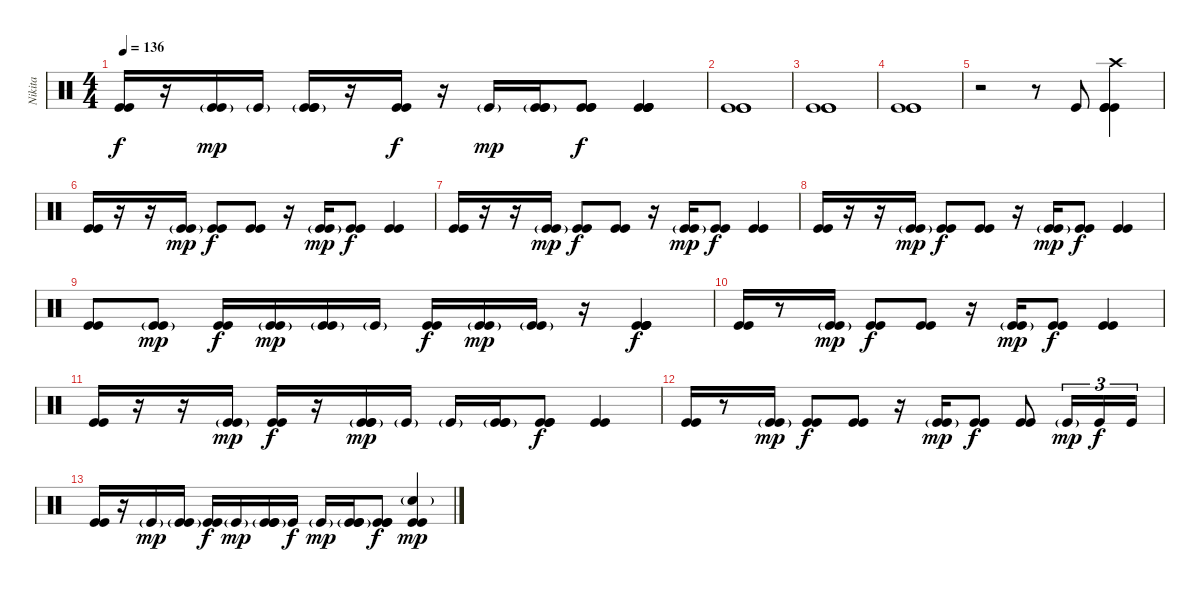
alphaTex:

\track ("Nikita" "Nikita") {instrument percussion}
\staff {score}
\articulation defaults
\ts (4 4)
\tempo 136
\clef neutral
\ks c
("Kick (hit)" "Kick (hit)").16{dy f} r.16 ("Kick (hit)"{g} "Kick (hit)"{g}).16{dy mp} "Kick (hit)"{g}.16 ("Kick (hit)" "Kick (hit)" "Kick (hit)"{g}).16 r.16 ("Kick (hit)" "Kick (hit)").16{dy f} r.16 "Kick (hit)"{g}.16{dy mp} ("Kick (hit)"{g} "Kick (hit)"{g} "Kick (hit)"{g}).16 ("Kick (hit)" "Kick (hit)" "Kick (hit)").8{dy f} ("Kick (hit)" "Kick (hit)" "Kick (hit)" "Kick (hit)").4 |
("Kick (hit)" "Kick (hit)" "Kick (hit)").1 |
("Kick (hit)" "Kick (hit)" "Kick (hit)").1 |
("Kick (hit)" "Kick (hit)" "Kick (hit)").1 |
r.2 r.8 "Kick (hit)".8 ("Kick (hit)" "Kick (hit)" "Kick (hit)" "Crash high (hit)").4 |
("Kick (hit)" "Kick (hit)").16 r.16 r.16 ("Kick (hit)"{g} "Kick (hit)"{g}).16{dy mp} ("Kick (hit)" "Kick (hit)").8{dy f} ("Kick (hit)" "Kick (hit)").8 r.16 ("Kick (hit)"{g} "Kick (hit)"{g}).16{dy mp} ("Kick (hit)" "Kick (hit)").8{dy f} ("Kick (hit)" "Kick (hit)").4 |
("Kick (hit)" "Kick (hit)").16 r.16 r.16 ("Kick (hit)"{g} "Kick (hit)"{g}).16{dy mp} ("Kick (hit)" "Kick (hit)").8{dy f} ("Kick (hit)" "Kick (hit)").8 r.16 ("Kick (hit)"{g} "Kick (hit)"{g}).16{dy mp} ("Kick (hit)" "Kick (hit)").8{dy f} ("Kick (hit)" "Kick (hit)").4 |
("Kick (hit)" "Kick (hit)").16 r.16 r.16 ("Kick (hit)"{g} "Kick (hit)"{g}).16{dy mp} ("Kick (hit)" "Kick (hit)").8{dy f} ("Kick (hit)" "Kick (hit)").8 r.16 ("Kick (hit)"{g} "Kick (hit)"{g}).16{dy mp} ("Kick (hit)" "Kick (hit)").8{dy f} ("Kick (hit)" "Kick (hit)").4 |
("Kick (hit)" "Kick (hit)").8 ("Kick (hit)"{g} "Kick (hit)"{g}).8{dy mp} ("Kick (hit)" "Kick (hit)").16{dy f} ("Kick (hit)"{g} "Kick (hit)"{g}).16{dy mp} ("Kick (hit)"{g} "Kick (hit)"{g}).16 "Kick (hit)"{g}.16 ("Kick (hit)" "Kick (hit)").16{dy f} ("Kick (hit)"{g} "Kick (hit)"{g}).16{dy mp} ("Kick (hit)"{g} "Kick (hit)"{g}).16 r.16 ("Kick (hit)" "Kick (hit)" "Kick (hit)" "Kick (hit)").4{dy f} |
("Kick (hit)" "Kick (hit)").16 r.8 ("Kick (hit)"{g} "Kick (hit)"{g}).16{dy mp} ("Kick (hit)" "Kick (hit)").8{dy f} ("Kick (hit)" "Kick (hit)").8 r.16 ("Kick (hit)"{g} "Kick (hit)"{g}).16{dy mp} ("Kick (hit)" "Kick (hit)").8{dy f} ("Kick (hit)" "Kick (hit)").4 |
("Kick (hit)" "Kick (hit)").16 r.16 r.16 ("Kick (hit)"{g} "Kick (hit)"{g}).16{dy mp} ("Kick (hit)" "Kick (hit)").16{dy f} r.16 ("Kick (hit)" "Kick (hit)" "Kick (hit)"{g}).16{dy mp} "Kick (hit)"{g}.16 "Kick (hit)"{g}.16 ("Kick (hit)"{g} "Kick (hit)"{g} "Kick (hit)"{g}).16 ("Kick (hit)" "Kick (hit)" "Kick (hit)").8{dy f} ("Kick (hit)" "Kick (hit)").4 |
("Kick (hit)" "Kick (hit)").16 r.8 ("Kick (hit)"{g} "Kick (hit)"{g}).16{dy mp} ("Kick (hit)" "Kick (hit)").8{dy f} ("Kick (hit)" "Kick (hit)").8 r.16 ("Kick (hit)"{g} "Kick (hit)"{g}).16{dy mp} ("Kick (hit)" "Kick (hit)").8{dy f} ("Kick (hit)" "Kick (hit)").8 "Kick (hit)"{g}.16{tu (3 2) dy mp} "Kick (hit)".16{tu (3 2) dy f} "Kick (hit)".16{tu (3 2)} |
("Kick (hit)" "Kick (hit)").16 r.16 "Kick (hit)"{g}.16{dy mp} ("Kick (hit)"{g} "Kick (hit)"{g}).16 ("Kick (hit)" "Kick (hit)").16{dy f} "Kick (hit)"{g}.16{dy mp} ("Kick (hit)" "Kick (hit)" "Kick (hit)"{g}).16 "Kick (hit)".16{dy f} "Kick (hit)"{g}.16{dy mp} ("Kick (hit)"{g} "Kick (hit)"{g} "Kick (hit)"{g}).16 ("Kick (hit)" "Kick (hit)" "Kick (hit)").8{dy f} ("Kick (hit)" "Kick (hit)" "Snare (hit) 2"{g}).4{dy mp}
